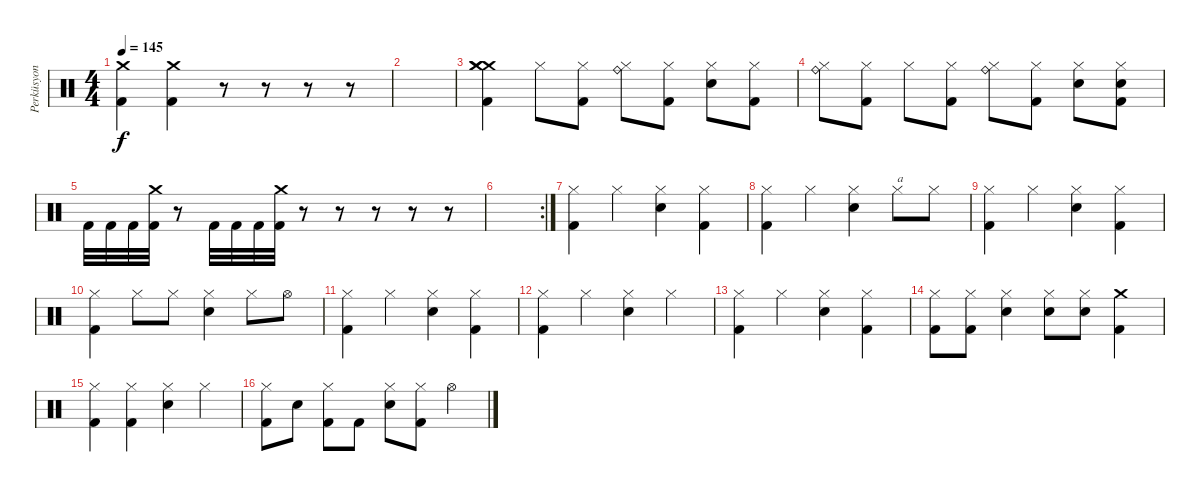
\track ("Perküsyon" "Perküsyon") {instrument percussion}
\staff {score}
\articulation defaults
\ts (4 4)
\tempo 145
\clef neutral
\ks c
("Kick (hit) 2" "Crash medium (hit)").4{dy f} ("Kick (hit) 2" "Crash medium (hit)").4 r.8 r.8 r.8 r.8 |
|
("Crash medium (hit)" "Kick (hit) 2" "Crash medium (hit)" "Crash medium (hit)").4 "Hi-Hat (closed)".8 ("Kick (hit) 2" "Hi-Hat (closed)").8 ("Ride (bell)" "Hi-Hat (closed)").8 ("Kick (hit) 2" "Hi-Hat (closed)").8 ("Electric Snare (hit)" "Hi-Hat (closed)").8 ("Kick (hit) 2" "Hi-Hat (closed)").8 |
("Ride (bell)" "Hi-Hat (closed)").8 ("Kick (hit) 2" "Hi-Hat (closed)").8 "Hi-Hat (closed)".8 ("Kick (hit) 2" "Hi-Hat (closed)").8 ("Ride (bell)" "Hi-Hat (closed)").8 ("Kick (hit) 2" "Hi-Hat (closed)").8 ("Electric Snare (hit)" "Hi-Hat (closed)").8 ("Electric Snare (hit)" "Kick (hit) 2" "Hi-Hat (closed)").8 |
"Kick (hit) 2".32 "Kick (hit) 2".32 "Kick (hit) 2".32 ("Kick (hit) 2" "Crash medium (hit)").32 r.8 "Kick (hit) 2".32 "Kick (hit) 2".32 "Kick (hit) 2".32 ("Kick (hit) 2" "Crash medium (hit)").32 r.8 r.8 r.8 r.8 r.8 |
\rc 2
|
("Kick (hit) 2" "Hi-Hat (closed)").4 "Hi-Hat (closed)".4 ("Electric Snare (hit)" "Hi-Hat (closed)").4 ("Kick (hit) 2" "Hi-Hat (closed)").4 |
("Kick (hit) 2" "Hi-Hat (closed)").4 "Hi-Hat (closed)".4 ("Electric Snare (hit)" "Hi-Hat (closed)").4 "Hi-Hat (closed)".8{txt "a"} "Hi-Hat (closed)".8 |
("Kick (hit) 2" "Hi-Hat (closed)").4 "Hi-Hat (closed)".4 ("Electric Snare (hit)" "Hi-Hat (closed)").4 ("Kick (hit) 2" "Hi-Hat (closed)").4 |
("Kick (hit) 2" "Hi-Hat (closed)").4 "Hi-Hat (closed)".8 "Hi-Hat (closed)".8 ("Electric Snare (hit)" "Hi-Hat (closed)").4 "Hi-Hat (closed)".8 "Hi-Hat (open)".8 |
("Kick (hit) 2" "Hi-Hat (closed)").4 "Hi-Hat (closed)".4 ("Electric Snare (hit)" "Hi-Hat (closed)").4 ("Kick (hit) 2" "Hi-Hat (closed)").4 |
("Kick (hit) 2" "Hi-Hat (closed)").4 "Hi-Hat (closed)".4 ("Electric Snare (hit)" "Hi-Hat (closed)").4 "Hi-Hat (closed)".4 |
("Kick (hit) 2" "Hi-Hat (closed)").4 "Hi-Hat (closed)".4 ("Electric Snare (hit)" "Hi-Hat (closed)").4 ("Kick (hit) 2" "Hi-Hat (closed)").4 |
("Kick (hit) 2" "Hi-Hat (closed)").8 ("Kick (hit) 2" "Hi-Hat (closed)").8 ("Electric Snare (hit)" "Hi-Hat (closed)").4 ("Electric Snare (hit)" "Hi-Hat (closed)").8 ("Electric Snare (hit)" "Hi-Hat (closed)").8 ("Kick (hit) 2" "Crash medium (hit)").4 |
("Kick (hit) 2" "Hi-Hat (closed)").4 ("Kick (hit) 2" "Hi-Hat (closed)").4 ("Electric Snare (hit)" "Hi-Hat (closed)").4 "Hi-Hat (closed)".4 |
("Kick (hit) 2" "Hi-Hat (closed)").8 "Electric Snare (hit)".8 ("Kick (hit) 2" "Hi-Hat (closed)").8 "Kick (hit) 2".8 ("Electric Snare (hit)" "Hi-Hat (closed)").8 ("Kick (hit) 2" "Hi-Hat (closed)").8 "Hi-Hat (open)".4
